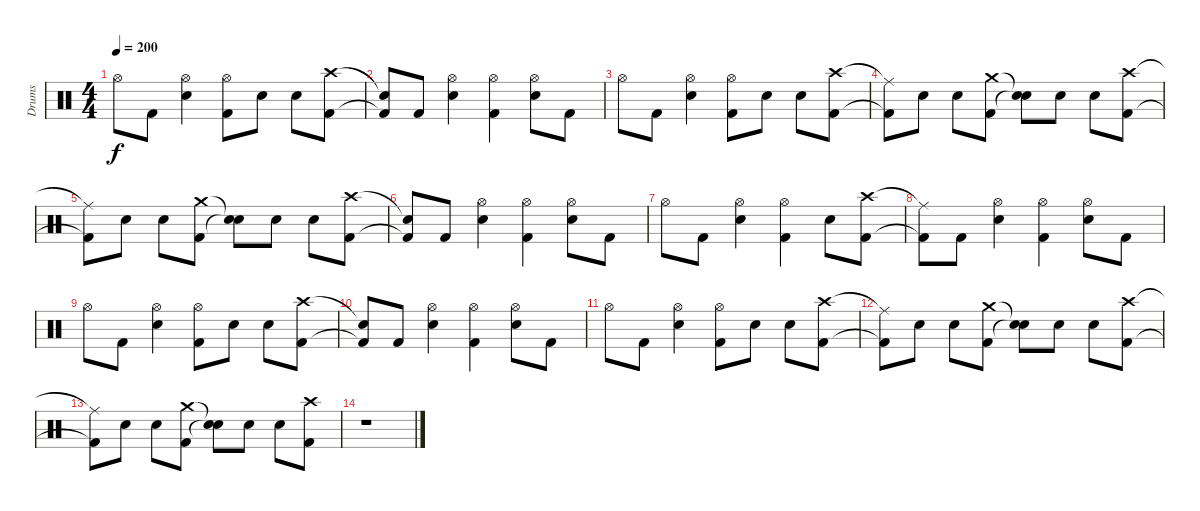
\track ("Drums" "Drums") {instrument percussion}
\staff {score}
\articulation defaults
\ts (4 4)
\tempo 200
\clef neutral
\ks c "Hi-Hat (open)".8{dy f} "Kick (hit) 2".8
("Hi-Hat (open)" "Electric Snare (hit)").4 ("Hi-Hat (open)" "Kick (hit) 2").8 "Electric Snare (hit)".8 "Electric Snare (hit)".8 ("Crash high (hit)" "Kick (hit) 2").8 |
("Snare (hit)"{t} "Kick (hit) 2"{t}).8 "Kick (hit) 2".8 ("Hi-Hat (open)" "Electric Snare (hit)").4 ("Hi-Hat (open)" "Kick (hit) 2").4 ("Hi-Hat (open)" "Electric Snare (hit)").8 "Kick (hit) 2".8 |
"Hi-Hat (open)".8 "Kick (hit) 2".8 ("Hi-Hat (open)" "Electric Snare (hit)").4 ("Hi-Hat (open)" "Kick (hit) 2").8 "Electric Snare (hit)".8 "Electric Snare (hit)".8 ("Crash high (hit)" "Kick (hit) 2").8 |
("Ride (middle)"{t} "Kick (hit) 2"{t}).8 "Electric Snare (hit)".8 "Electric Snare (hit)".8 ("Crash medium (hit)" "Kick (hit) 2").8 ("Snare (hit)"{t} "Snare (hit)"{t}).8 "Electric Snare (hit)".8 "Electric Snare (hit)".8 ("Crash high (hit)" "Kick (hit) 2").8 |
("Ride (middle)"{t} "Kick (hit) 2"{t}).8 "Electric Snare (hit)".8 "Electric Snare (hit)".8 ("Crash medium (hit)" "Kick (hit) 2").8 ("Snare (hit)"{t} "Snare (hit)"{t}).8 "Electric Snare (hit)".8 "Electric Snare (hit)".8 ("Crash high (hit)" "Kick (hit) 2").8 |
("Snare (hit)"{t} "Kick (hit) 2"{t}).8 "Kick (hit) 2".8 ("Hi-Hat (open)" "Electric Snare (hit)").4 ("Hi-Hat (open)" "Kick (hit) 2").4 ("Hi-Hat (open)" "Electric Snare (hit)").8 "Kick (hit) 2".8 |
"Hi-Hat (open)".8 "Kick (hit) 2".8 ("Hi-Hat (open)" "Electric Snare (hit)").4 ("Hi-Hat (open)" "Kick (hit) 2").4 "Electric Snare (hit)".8 ("Crash high (hit)" "Kick (hit) 2").8 |
("Ride (middle)"{t} "Kick (hit) 2"{t}).8 "Kick (hit) 2".8 ("Hi-Hat (open)" "Electric Snare (hit)").4 ("Hi-Hat (open)" "Kick (hit) 2").4 ("Hi-Hat (open)" "Electric Snare (hit)").8 "Kick (hit) 2".8 |
"Hi-Hat (open)".8 "Kick (hit) 2".8 ("Hi-Hat (open)" "Electric Snare (hit)").4 ("Hi-Hat (open)" "Kick (hit) 2").8 "Electric Snare (hit)".8 "Electric Snare (hit)".8 ("Crash high (hit)" "Kick (hit) 2").8 |
("Snare (hit)"{t} "Kick (hit) 2"{t}).8 "Kick (hit) 2".8 ("Hi-Hat (open)" "Electric Snare (hit)").4 ("Hi-Hat (open)" "Kick (hit) 2").4 ("Hi-Hat (open)" "Electric Snare (hit)").8 "Kick (hit) 2".8 |
"Hi-Hat (open)".8 "Kick (hit) 2".8 ("Hi-Hat (open)" "Electric Snare (hit)").4 ("Hi-Hat (open)" "Kick (hit) 2").8 "Electric Snare (hit)".8 "Electric Snare (hit)".8 ("Crash high (hit)" "Kick (hit) 2").8 |
("Ride (middle)"{t} "Kick (hit) 2"{t}).8 "Electric Snare (hit)".8 "Electric Snare (hit)".8 ("Crash medium (hit)" "Kick (hit) 2").8 ("Snare (hit)"{t} "Snare (hit)"{t}).8 "Electric Snare (hit)".8 "Electric Snare (hit)".8 ("Crash high (hit)" "Kick (hit) 2").8 |
("Ride (middle)"{t} "Kick (hit) 2"{t}).8 "Electric Snare (hit)".8 "Electric Snare (hit)".8 ("Crash medium (hit)" "Kick (hit) 2").8 ("Snare (hit)"{t} "Snare (hit)"{t}).8 "Electric Snare (hit)".8 "Electric Snare (hit)".8 ("Crash high (hit)" "Kick (hit) 2").8 |
r.1
